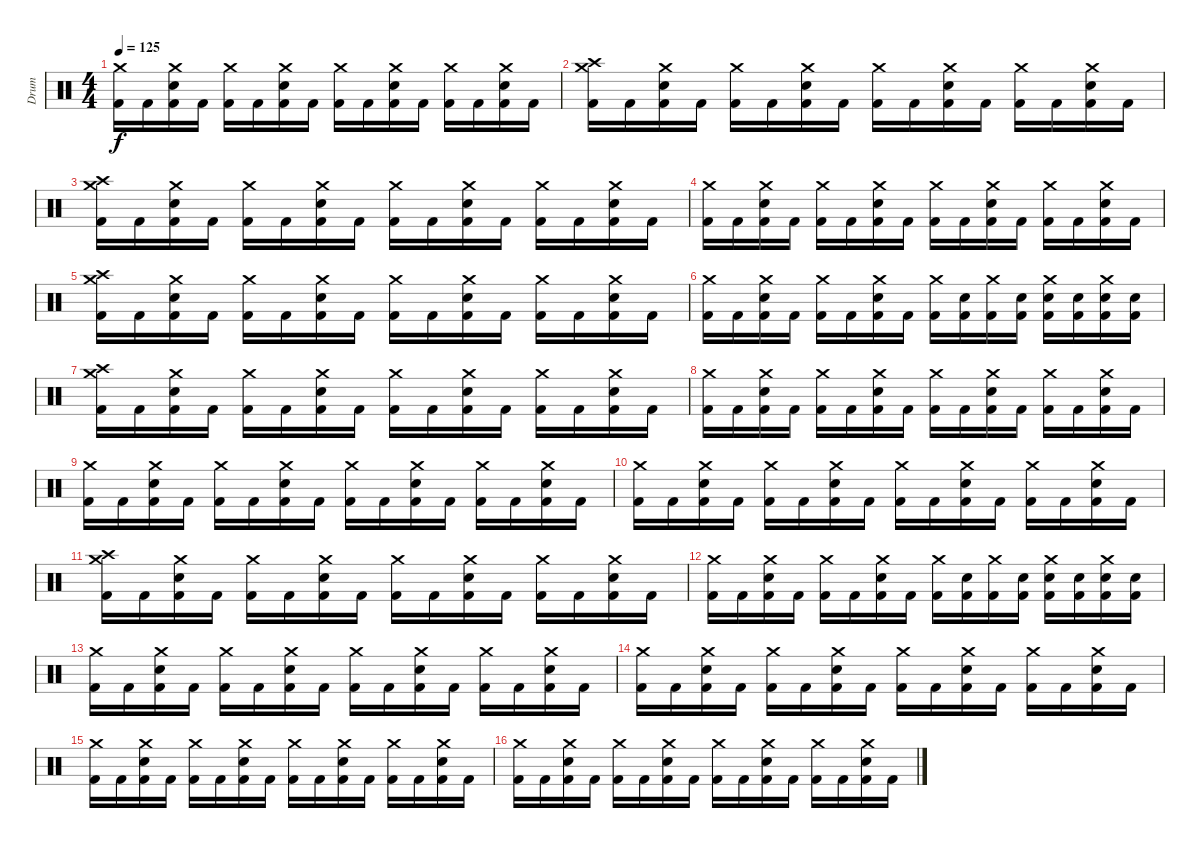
\track ("Drum" "Drum") {instrument percussion}
\staff {score}
\articulation defaults
\ts (4 4)
\tempo 125
\clef neutral
\ks c
("Crash medium (hit)" "Kick (hit) 2").16{dy f} "Kick (hit) 2".16 ("Crash medium (hit)" "Kick (hit) 2" "Electric Snare (hit)").16 "Kick (hit) 2".16 ("Crash medium (hit)" "Kick (hit) 2").16 "Kick (hit) 2".16 ("Crash medium (hit)" "Kick (hit) 2" "Electric Snare (hit)").16 "Kick (hit) 2".16 ("Crash medium (hit)" "Kick (hit) 2").16 "Kick (hit) 2".16 ("Crash medium (hit)" "Kick (hit) 2" "Electric Snare (hit)").16 "Kick (hit) 2".16 ("Crash medium (hit)" "Kick (hit) 2").16 "Kick (hit) 2".16 ("Crash medium (hit)" "Kick (hit) 2" "Electric Snare (hit)").16 "Kick (hit) 2".16 |
("Crash high (hit)" "Crash medium (hit)" "Kick (hit) 2").16 "Kick (hit) 2".16 ("Crash medium (hit)" "Kick (hit) 2" "Electric Snare (hit)").16 "Kick (hit) 2".16 ("Crash medium (hit)" "Kick (hit) 2").16 "Kick (hit) 2".16 ("Crash medium (hit)" "Kick (hit) 2" "Electric Snare (hit)").16 "Kick (hit) 2".16 ("Crash medium (hit)" "Kick (hit) 2").16 "Kick (hit) 2".16 ("Crash medium (hit)" "Kick (hit) 2" "Electric Snare (hit)").16 "Kick (hit) 2".16 ("Crash medium (hit)" "Kick (hit) 2").16 "Kick (hit) 2".16 ("Crash medium (hit)" "Kick (hit) 2" "Electric Snare (hit)").16 "Kick (hit) 2".16 |
("Crash high (hit)" "Crash medium (hit)" "Kick (hit) 2").16 "Kick (hit) 2".16 ("Crash medium (hit)" "Kick (hit) 2" "Electric Snare (hit)").16 "Kick (hit) 2".16 ("Crash medium (hit)" "Kick (hit) 2").16 "Kick (hit) 2".16 ("Crash medium (hit)" "Kick (hit) 2" "Electric Snare (hit)").16 "Kick (hit) 2".16 ("Crash medium (hit)" "Kick (hit) 2").16 "Kick (hit) 2".16 ("Crash medium (hit)" "Kick (hit) 2" "Electric Snare (hit)").16 "Kick (hit) 2".16 ("Crash medium (hit)" "Kick (hit) 2").16 "Kick (hit) 2".16 ("Crash medium (hit)" "Kick (hit) 2" "Electric Snare (hit)").16 "Kick (hit) 2".16 |
("Crash medium (hit)" "Kick (hit) 2").16 "Kick (hit) 2".16 ("Crash medium (hit)" "Kick (hit) 2" "Electric Snare (hit)").16 "Kick (hit) 2".16 ("Crash medium (hit)" "Kick (hit) 2").16 "Kick (hit) 2".16 ("Crash medium (hit)" "Kick (hit) 2" "Electric Snare (hit)").16 "Kick (hit) 2".16 ("Crash medium (hit)" "Kick (hit) 2").16 "Kick (hit) 2".16 ("Crash medium (hit)" "Kick (hit) 2" "Electric Snare (hit)").16 "Kick (hit) 2".16 ("Crash medium (hit)" "Kick (hit) 2").16 "Kick (hit) 2".16 ("Crash medium (hit)" "Kick (hit) 2" "Electric Snare (hit)").16 "Kick (hit) 2".16 |
("Crash high (hit)" "Crash medium (hit)" "Kick (hit) 2").16 "Kick (hit) 2".16 ("Crash medium (hit)" "Kick (hit) 2" "Electric Snare (hit)").16 "Kick (hit) 2".16 ("Crash medium (hit)" "Kick (hit) 2").16 "Kick (hit) 2".16 ("Crash medium (hit)" "Kick (hit) 2" "Electric Snare (hit)").16 "Kick (hit) 2".16 ("Crash medium (hit)" "Kick (hit) 2").16 "Kick (hit) 2".16 ("Crash medium (hit)" "Kick (hit) 2" "Electric Snare (hit)").16 "Kick (hit) 2".16 ("Crash medium (hit)" "Kick (hit) 2").16 "Kick (hit) 2".16 ("Crash medium (hit)" "Kick (hit) 2" "Electric Snare (hit)").16 "Kick (hit) 2".16 |
("Crash medium (hit)" "Kick (hit) 2").16 "Kick (hit) 2".16 ("Crash medium (hit)" "Kick (hit) 2" "Electric Snare (hit)").16 "Kick (hit) 2".16 ("Crash medium (hit)" "Kick (hit) 2").16 "Kick (hit) 2".16 ("Crash medium (hit)" "Kick (hit) 2" "Electric Snare (hit)").16 "Kick (hit) 2".16 ("Crash medium (hit)" "Kick (hit) 2").16 ("Kick (hit) 2" "Electric Snare (hit)").16 ("Crash medium (hit)" "Kick (hit) 2").16 ("Kick (hit) 2" "Electric Snare (hit)").16 ("Crash medium (hit)" "Kick (hit) 2" "Electric Snare (hit)").16 ("Kick (hit) 2" "Electric Snare (hit)").16 ("Crash medium (hit)" "Kick (hit) 2" "Electric Snare (hit)").16 ("Kick (hit) 2" "Electric Snare (hit)").16 |
("Crash high (hit)" "Crash medium (hit)" "Kick (hit) 2").16 "Kick (hit) 2".16 ("Crash medium (hit)" "Kick (hit) 2" "Electric Snare (hit)").16 "Kick (hit) 2".16 ("Crash medium (hit)" "Kick (hit) 2").16 "Kick (hit) 2".16 ("Crash medium (hit)" "Kick (hit) 2" "Electric Snare (hit)").16 "Kick (hit) 2".16 ("Crash medium (hit)" "Kick (hit) 2").16 "Kick (hit) 2".16 ("Crash medium (hit)" "Kick (hit) 2" "Electric Snare (hit)").16 "Kick (hit) 2".16 ("Crash medium (hit)" "Kick (hit) 2").16 "Kick (hit) 2".16 ("Crash medium (hit)" "Kick (hit) 2" "Electric Snare (hit)").16 "Kick (hit) 2".16 |
("Crash medium (hit)" "Kick (hit) 2").16 "Kick (hit) 2".16 ("Crash medium (hit)" "Kick (hit) 2" "Electric Snare (hit)").16 "Kick (hit) 2".16 ("Crash medium (hit)" "Kick (hit) 2").16 "Kick (hit) 2".16 ("Crash medium (hit)" "Kick (hit) 2" "Electric Snare (hit)").16 "Kick (hit) 2".16 ("Crash medium (hit)" "Kick (hit) 2").16 "Kick (hit) 2".16 ("Crash medium (hit)" "Kick (hit) 2" "Electric Snare (hit)").16 "Kick (hit) 2".16 ("Crash medium (hit)" "Kick (hit) 2").16 "Kick (hit) 2".16 ("Crash medium (hit)" "Kick (hit) 2" "Electric Snare (hit)").16 "Kick (hit) 2".16 |
("Crash medium (hit)" "Kick (hit) 2").16 "Kick (hit) 2".16 ("Crash medium (hit)" "Kick (hit) 2" "Electric Snare (hit)").16 "Kick (hit) 2".16 ("Crash medium (hit)" "Kick (hit) 2").16 "Kick (hit) 2".16 ("Crash medium (hit)" "Kick (hit) 2" "Electric Snare (hit)").16 "Kick (hit) 2".16 ("Crash medium (hit)" "Kick (hit) 2").16 "Kick (hit) 2".16 ("Crash medium (hit)" "Kick (hit) 2" "Electric Snare (hit)").16 "Kick (hit) 2".16 ("Crash medium (hit)" "Kick (hit) 2").16 "Kick (hit) 2".16 ("Crash medium (hit)" "Kick (hit) 2" "Electric Snare (hit)").16 "Kick (hit) 2".16 |
("Crash medium (hit)" "Kick (hit) 2").16 "Kick (hit) 2".16 ("Crash medium (hit)" "Kick (hit) 2" "Electric Snare (hit)").16 "Kick (hit) 2".16 ("Crash medium (hit)" "Kick (hit) 2").16 "Kick (hit) 2".16 ("Crash medium (hit)" "Kick (hit) 2" "Electric Snare (hit)").16 "Kick (hit) 2".16 ("Crash medium (hit)" "Kick (hit) 2").16 "Kick (hit) 2".16 ("Crash medium (hit)" "Kick (hit) 2" "Electric Snare (hit)").16 "Kick (hit) 2".16 ("Crash medium (hit)" "Kick (hit) 2").16 "Kick (hit) 2".16 ("Crash medium (hit)" "Kick (hit) 2" "Electric Snare (hit)").16 "Kick (hit) 2".16 |
("Crash high (hit)" "Crash medium (hit)" "Kick (hit) 2").16 "Kick (hit) 2".16 ("Crash medium (hit)" "Kick (hit) 2" "Electric Snare (hit)").16 "Kick (hit) 2".16 ("Crash medium (hit)" "Kick (hit) 2").16 "Kick (hit) 2".16 ("Crash medium (hit)" "Kick (hit) 2" "Electric Snare (hit)").16 "Kick (hit) 2".16 ("Crash medium (hit)" "Kick (hit) 2").16 "Kick (hit) 2".16 ("Crash medium (hit)" "Kick (hit) 2" "Electric Snare (hit)").16 "Kick (hit) 2".16 ("Crash medium (hit)" "Kick (hit) 2").16 "Kick (hit) 2".16 ("Crash medium (hit)" "Kick (hit) 2" "Electric Snare (hit)").16 "Kick (hit) 2".16 |
("Crash medium (hit)" "Kick (hit) 2").16 "Kick (hit) 2".16 ("Crash medium (hit)" "Kick (hit) 2" "Electric Snare (hit)").16 "Kick (hit) 2".16 ("Crash medium (hit)" "Kick (hit) 2").16 "Kick (hit) 2".16 ("Crash medium (hit)" "Kick (hit) 2" "Electric Snare (hit)").16 "Kick (hit) 2".16 ("Crash medium (hit)" "Kick (hit) 2").16 ("Kick (hit) 2" "Electric Snare (hit)").16 ("Crash medium (hit)" "Kick (hit) 2").16 ("Kick (hit) 2" "Electric Snare (hit)").16 ("Crash medium (hit)" "Kick (hit) 2" "Electric Snare (hit)").16 ("Kick (hit) 2" "Electric Snare (hit)").16 ("Crash medium (hit)" "Kick (hit) 2" "Electric Snare (hit)").16 ("Kick (hit) 2" "Electric Snare (hit)").16 |
("Crash medium (hit)" "Kick (hit) 2").16 "Kick (hit) 2".16 ("Crash medium (hit)" "Kick (hit) 2" "Electric Snare (hit)").16 "Kick (hit) 2".16 ("Crash medium (hit)" "Kick (hit) 2").16 "Kick (hit) 2".16 ("Crash medium (hit)" "Kick (hit) 2" "Electric Snare (hit)").16 "Kick (hit) 2".16 ("Crash medium (hit)" "Kick (hit) 2").16 "Kick (hit) 2".16 ("Crash medium (hit)" "Kick (hit) 2" "Electric Snare (hit)").16 "Kick (hit) 2".16 ("Crash medium (hit)" "Kick (hit) 2").16 "Kick (hit) 2".16 ("Crash medium (hit)" "Kick (hit) 2" "Electric Snare (hit)").16 "Kick (hit) 2".16 |
("Crash medium (hit)" "Kick (hit) 2").16 "Kick (hit) 2".16 ("Crash medium (hit)" "Kick (hit) 2" "Electric Snare (hit)").16 "Kick (hit) 2".16 ("Crash medium (hit)" "Kick (hit) 2").16 "Kick (hit) 2".16 ("Crash medium (hit)" "Kick (hit) 2" "Electric Snare (hit)").16 "Kick (hit) 2".16 ("Crash medium (hit)" "Kick (hit) 2").16 "Kick (hit) 2".16 ("Crash medium (hit)" "Kick (hit) 2" "Electric Snare (hit)").16 "Kick (hit) 2".16 ("Crash medium (hit)" "Kick (hit) 2").16 "Kick (hit) 2".16 ("Crash medium (hit)" "Kick (hit) 2" "Electric Snare (hit)").16 "Kick (hit) 2".16 |
("Crash medium (hit)" "Kick (hit) 2").16 "Kick (hit) 2".16 ("Crash medium (hit)" "Kick (hit) 2" "Electric Snare (hit)").16 "Kick (hit) 2".16 ("Crash medium (hit)" "Kick (hit) 2").16 "Kick (hit) 2".16 ("Crash medium (hit)" "Kick (hit) 2" "Electric Snare (hit)").16 "Kick (hit) 2".16 ("Crash medium (hit)" "Kick (hit) 2").16 "Kick (hit) 2".16 ("Crash medium (hit)" "Kick (hit) 2" "Electric Snare (hit)").16 "Kick (hit) 2".16 ("Crash medium (hit)" "Kick (hit) 2").16 "Kick (hit) 2".16 ("Crash medium (hit)" "Kick (hit) 2" "Electric Snare (hit)").16 "Kick (hit) 2".16 |
("Crash medium (hit)" "Kick (hit) 2").16 "Kick (hit) 2".16 ("Crash medium (hit)" "Kick (hit) 2" "Electric Snare (hit)").16 "Kick (hit) 2".16 ("Crash medium (hit)" "Kick (hit) 2").16 "Kick (hit) 2".16 ("Crash medium (hit)" "Kick (hit) 2" "Electric Snare (hit)").16 "Kick (hit) 2".16 ("Crash medium (hit)" "Kick (hit) 2").16 "Kick (hit) 2".16 ("Crash medium (hit)" "Kick (hit) 2" "Electric Snare (hit)").16 "Kick (hit) 2".16 ("Crash medium (hit)" "Kick (hit) 2").16 "Kick (hit) 2".16 ("Crash medium (hit)" "Kick (hit) 2" "Electric Snare (hit)").16 "Kick (hit) 2".16
